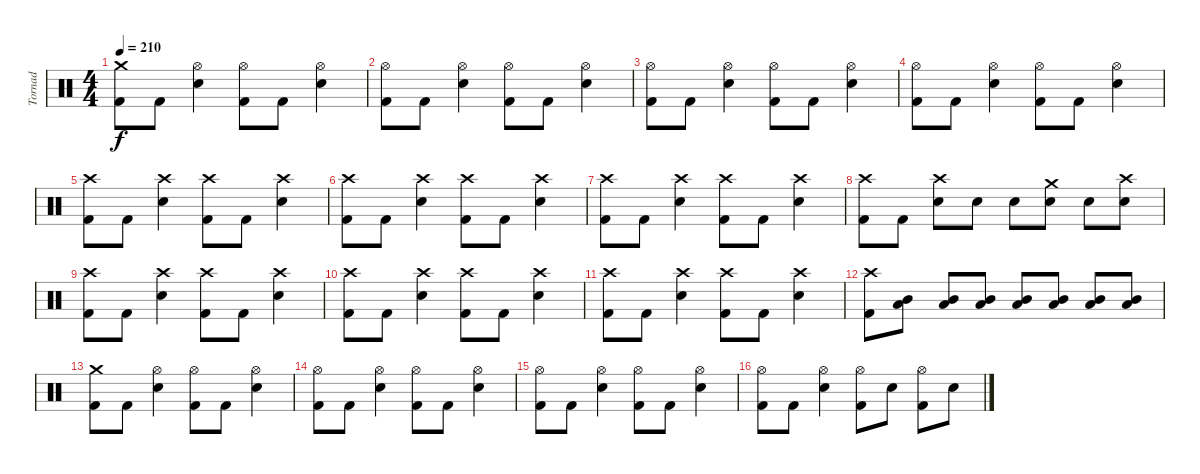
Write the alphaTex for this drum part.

\track ("Tornad" "Tornad") {instrument percussion}
\staff {score}
\articulation defaults
\ts (4 4)
\tempo 210
\clef neutral
\ks c
("Crash medium (hit)" "Kick (hit) 2").8{dy f} "Kick (hit) 2".8 ("Hi-Hat (open)" "Electric Snare (hit)").4 ("Hi-Hat (open)" "Kick (hit) 2").8 "Kick (hit) 2".8 ("Hi-Hat (open)" "Electric Snare (hit)").4 |
("Hi-Hat (open)" "Kick (hit) 2").8 "Kick (hit) 2".8 ("Hi-Hat (open)" "Electric Snare (hit)").4 ("Hi-Hat (open)" "Kick (hit) 2").8 "Kick (hit) 2".8 ("Hi-Hat (open)" "Electric Snare (hit)").4 |
("Hi-Hat (open)" "Kick (hit) 2").8 "Kick (hit) 2".8 ("Hi-Hat (open)" "Electric Snare (hit)").4 ("Hi-Hat (open)" "Kick (hit) 2").8 "Kick (hit) 2".8 ("Hi-Hat (open)" "Electric Snare (hit)").4 |
("Hi-Hat (open)" "Kick (hit) 2").8 "Kick (hit) 2".8 ("Hi-Hat (open)" "Electric Snare (hit)").4 ("Hi-Hat (open)" "Kick (hit) 2").8 "Kick (hit) 2".8 ("Hi-Hat (open)" "Electric Snare (hit)").4 |
("Crash high (hit)" "Kick (hit) 2").8 "Kick (hit) 2".8 ("Crash high (hit)" "Electric Snare (hit)").4 ("Crash high (hit)" "Kick (hit) 2").8 "Kick (hit) 2".8 ("Crash high (hit)" "Electric Snare (hit)").4 |
("Crash high (hit)" "Kick (hit) 2").8 "Kick (hit) 2".8 ("Crash high (hit)" "Electric Snare (hit)").4 ("Crash high (hit)" "Kick (hit) 2").8 "Kick (hit) 2".8 ("Crash high (hit)" "Electric Snare (hit)").4 |
("Crash high (hit)" "Kick (hit) 2").8 "Kick (hit) 2".8 ("Crash high (hit)" "Electric Snare (hit)").4 ("Crash high (hit)" "Kick (hit) 2").8 "Kick (hit) 2".8 ("Crash high (hit)" "Electric Snare (hit)").4 |
("Crash high (hit)" "Kick (hit) 2").8 "Kick (hit) 2".8 ("Crash high (hit)" "Electric Snare (hit)").8 "Electric Snare (hit)".8 "Electric Snare (hit)".8 ("Crash medium (hit)" "Electric Snare (hit)").8 "Electric Snare (hit)".8 ("Crash high (hit)" "Electric Snare (hit)").8 |
("Crash high (hit)" "Kick (hit) 2").8 "Kick (hit) 2".8 ("Crash high (hit)" "Electric Snare (hit)").4 ("Crash high (hit)" "Kick (hit) 2").8 "Kick (hit) 2".8 ("Crash high (hit)" "Electric Snare (hit)").4 |
("Crash high (hit)" "Kick (hit) 2").8 "Kick (hit) 2".8 ("Crash high (hit)" "Electric Snare (hit)").4 ("Crash high (hit)" "Kick (hit) 2").8 "Kick (hit) 2".8 ("Crash high (hit)" "Electric Snare (hit)").4 |
("Crash high (hit)" "Kick (hit) 2").8 "Kick (hit) 2".8 ("Crash high (hit)" "Electric Snare (hit)").4 ("Crash high (hit)" "Kick (hit) 2").8 "Kick (hit) 2".8 ("Crash high (hit)" "Electric Snare (hit)").4 |
("Crash high (hit)" "Kick (hit) 2").8 ("Mid Tom (hit)" "Low Tom (hit)").8 ("Mid Tom (hit)" "Low Tom (hit)").8 ("Mid Tom (hit)" "Low Tom (hit)").8 ("Mid Tom (hit)" "Low Tom (hit)").8 ("Mid Tom (hit)" "Low Tom (hit)").8 ("Mid Tom (hit)" "Low Tom (hit)").8 ("Mid Tom (hit)" "Low Tom (hit)").8 |
("Crash medium (hit)" "Kick (hit) 2").8 "Kick (hit) 2".8 ("Hi-Hat (open)" "Electric Snare (hit)").4 ("Hi-Hat (open)" "Kick (hit) 2").8 "Kick (hit) 2".8 ("Hi-Hat (open)" "Electric Snare (hit)").4 |
("Hi-Hat (open)" "Kick (hit) 2").8 "Kick (hit) 2".8 ("Hi-Hat (open)" "Electric Snare (hit)").4 ("Hi-Hat (open)" "Kick (hit) 2").8 "Kick (hit) 2".8 ("Hi-Hat (open)" "Electric Snare (hit)").4 |
("Hi-Hat (open)" "Kick (hit) 2").8 "Kick (hit) 2".8 ("Hi-Hat (open)" "Electric Snare (hit)").4 ("Hi-Hat (open)" "Kick (hit) 2").8 "Kick (hit) 2".8 ("Hi-Hat (open)" "Electric Snare (hit)").4 |
("Hi-Hat (open)" "Kick (hit) 2").8 "Kick (hit) 2".8 ("Hi-Hat (open)" "Electric Snare (hit)").4 ("Hi-Hat (open)" "Kick (hit) 2").8 "Electric Snare (hit)".8 ("Hi-Hat (open)" "Kick (hit) 2").8 "Electric Snare (hit)".8
